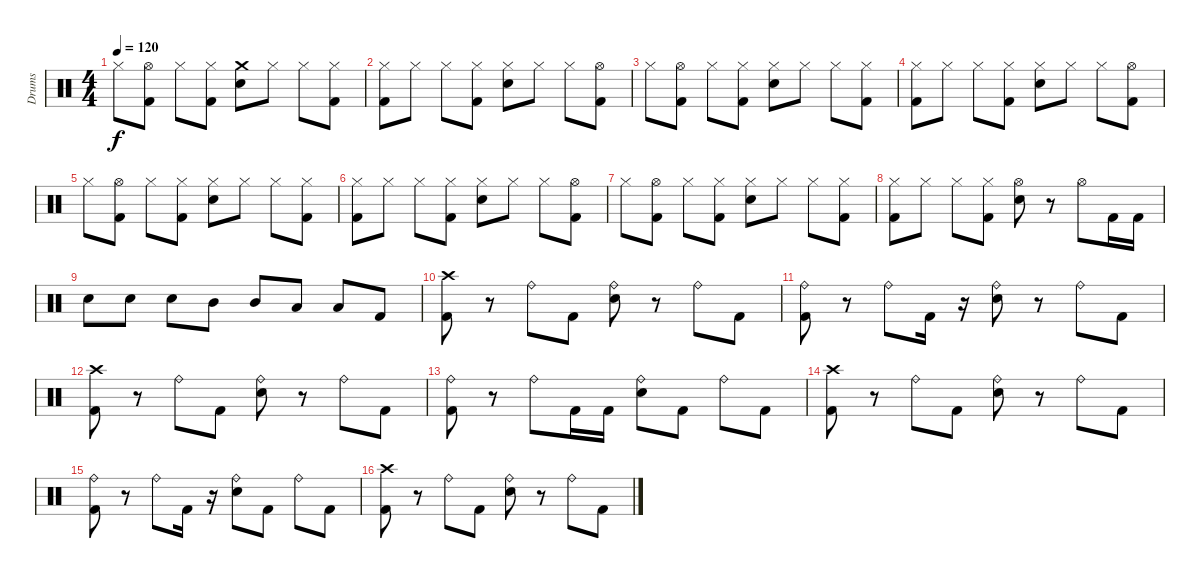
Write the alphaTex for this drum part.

\track ("Drums" "Drums") {instrument percussion}
\staff {score}
\articulation defaults
\ts (4 4)
\tempo 120
\clef neutral
\ks c "Hi-Hat (closed)".8{dy f}
("Hi-Hat (open)" "Kick (hit) 2").8 "Hi-Hat (closed)".8 ("Hi-Hat (closed)" "Kick (hit) 2").8 ("Crash medium (hit)" "Electric Snare (hit)").8 "Hi-Hat (closed)".8 "Hi-Hat (closed)".8 ("Hi-Hat (closed)" "Kick (hit) 2").8 |
("Hi-Hat (closed)" "Kick (hit) 2").8 "Hi-Hat (closed)".8 "Hi-Hat (closed)".8 ("Hi-Hat (closed)" "Kick (hit) 2").8 ("Hi-Hat (closed)" "Electric Snare (hit)").8 "Hi-Hat (closed)".8 "Hi-Hat (closed)".8 ("Hi-Hat (open)" "Kick (hit) 2").8 |
"Hi-Hat (closed)".8 ("Hi-Hat (open)" "Kick (hit) 2").8 "Hi-Hat (closed)".8 ("Hi-Hat (closed)" "Kick (hit) 2").8 ("Hi-Hat (closed)" "Electric Snare (hit)").8 "Hi-Hat (closed)".8 "Hi-Hat (closed)".8 ("Hi-Hat (closed)" "Kick (hit) 2").8 |
("Hi-Hat (closed)" "Kick (hit) 2").8 "Hi-Hat (closed)".8 "Hi-Hat (closed)".8 ("Hi-Hat (closed)" "Kick (hit) 2").8 ("Hi-Hat (closed)" "Electric Snare (hit)").8 "Hi-Hat (closed)".8 "Hi-Hat (closed)".8 ("Hi-Hat (open)" "Kick (hit) 2").8 |
"Hi-Hat (closed)".8 ("Hi-Hat (open)" "Kick (hit) 2").8 "Hi-Hat (closed)".8 ("Hi-Hat (closed)" "Kick (hit) 2").8 ("Hi-Hat (closed)" "Electric Snare (hit)").8 "Hi-Hat (closed)".8 "Hi-Hat (closed)".8 ("Hi-Hat (closed)" "Kick (hit) 2").8 |
("Hi-Hat (closed)" "Kick (hit) 2").8 "Hi-Hat (closed)".8 "Hi-Hat (closed)".8 ("Hi-Hat (closed)" "Kick (hit) 2").8 ("Hi-Hat (closed)" "Electric Snare (hit)").8 "Hi-Hat (closed)".8 "Hi-Hat (closed)".8 ("Hi-Hat (open)" "Kick (hit) 2").8 |
"Hi-Hat (closed)".8 ("Hi-Hat (open)" "Kick (hit) 2").8 "Hi-Hat (closed)".8 ("Hi-Hat (closed)" "Kick (hit) 2").8 ("Hi-Hat (closed)" "Electric Snare (hit)").8 "Hi-Hat (closed)".8 "Hi-Hat (closed)".8 ("Hi-Hat (closed)" "Kick (hit) 2").8 |
("Hi-Hat (closed)" "Kick (hit) 2").8 "Hi-Hat (closed)".8 "Hi-Hat (closed)".8 ("Hi-Hat (closed)" "Kick (hit) 2").8 ("Hi-Hat (open)" "Electric Snare (hit)").8 r.8 "Hi-Hat (open)".8 "Kick (hit) 2".16 "Kick (hit) 2".16 |
"Electric Snare (hit)".8 "Electric Snare (hit)".8 "Electric Snare (hit)".8 "Mid Tom (hit)".8 "Mid Tom (hit)".8 "Low Tom (hit)".8 "Low Tom (hit)".8 "Kick (hit) 2".8 |
("Crash high (hit)" "Kick (hit) 2").8 r.8 "Ride (bell)".8 "Kick (hit) 2".8 ("Ride (bell)" "Electric Snare (hit)").8 r.8 "Ride (bell)".8 "Kick (hit) 2".8 |
("Ride (bell)" "Kick (hit) 2").8 r.8 "Ride (bell)".8 "Kick (hit) 2".16 r.16 ("Ride (bell)" "Electric Snare (hit)").8 r.8 "Ride (bell)".8 "Kick (hit) 2".8 |
("Crash high (hit)" "Kick (hit) 2").8 r.8 "Ride (bell)".8 "Kick (hit) 2".8 ("Ride (bell)" "Electric Snare (hit)").8 r.8 "Ride (bell)".8 "Kick (hit) 2".8 |
("Ride (bell)" "Kick (hit) 2").8 r.8 "Ride (bell)".8 "Kick (hit) 2".16 "Kick (hit) 2".16 ("Ride (bell)" "Electric Snare (hit)").8 "Kick (hit) 2".8 "Ride (bell)".8 "Kick (hit) 2".8 |
("Crash high (hit)" "Kick (hit) 2").8 r.8 "Ride (bell)".8 "Kick (hit) 2".8 ("Ride (bell)" "Electric Snare (hit)").8 r.8 "Ride (bell)".8 "Kick (hit) 2".8 |
("Ride (bell)" "Kick (hit) 2").8 r.8 "Ride (bell)".8 "Kick (hit) 2".16 r.16 ("Ride (bell)" "Electric Snare (hit)").8 "Kick (hit) 2".8 "Ride (bell)".8 "Kick (hit) 2".8 |
("Crash high (hit)" "Kick (hit) 2").8 r.8 "Ride (bell)".8 "Kick (hit) 2".8 ("Ride (bell)" "Electric Snare (hit)").8 r.8 "Ride (bell)".8 "Kick (hit) 2".8
